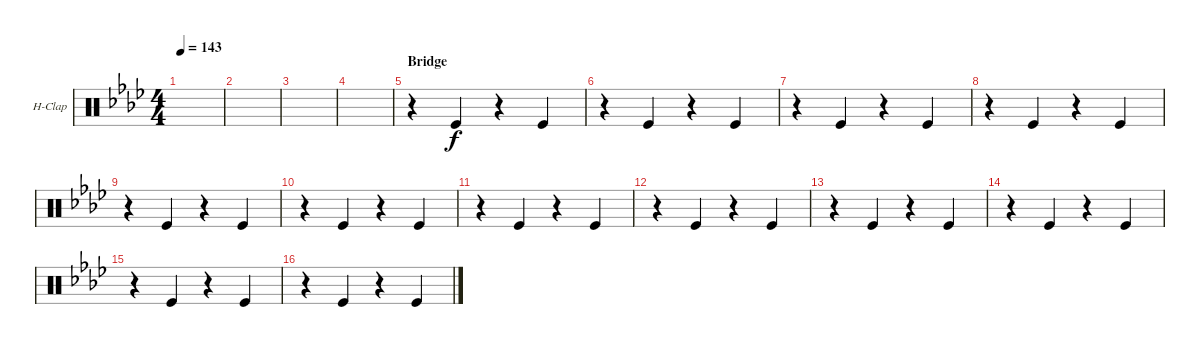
\defaultSystemsLayout 4
\bracketExtendMode groupsimilarinstruments
\firstSystemTrackNameOrientation horizontal
\otherSystemsTrackNameOrientation horizontal
\track ("Hand Clap" "H-Clap") {instrument percussion}
\staff {score}
\articulation defaults
\ts (4 4)
\tempo 143
\clef neutral
\ks fminor
|
|
|
|
\section ("" "Bridge")
r.4 "Kick (hit)".4 r.4 "Kick (hit)".4 |
r.4 "Kick (hit)".4 r.4 "Kick (hit)".4 |
r.4 "Kick (hit)".4 r.4 "Kick (hit)".4 |
r.4 "Kick (hit)".4 r.4 "Kick (hit)".4 |
r.4 "Kick (hit)".4 r.4 "Kick (hit)".4 |
r.4 "Kick (hit)".4 r.4 "Kick (hit)".4 |
r.4 "Kick (hit)".4 r.4 "Kick (hit)".4 |
r.4 "Kick (hit)".4 r.4 "Kick (hit)".4 |
r.4 "Kick (hit)".4 r.4 "Kick (hit)".4 |
r.4 "Kick (hit)".4 r.4 "Kick (hit)".4 |
r.4 "Kick (hit)".4 r.4 "Kick (hit)".4 |
r.4 "Kick (hit)".4 r.4 "Kick (hit)".4
